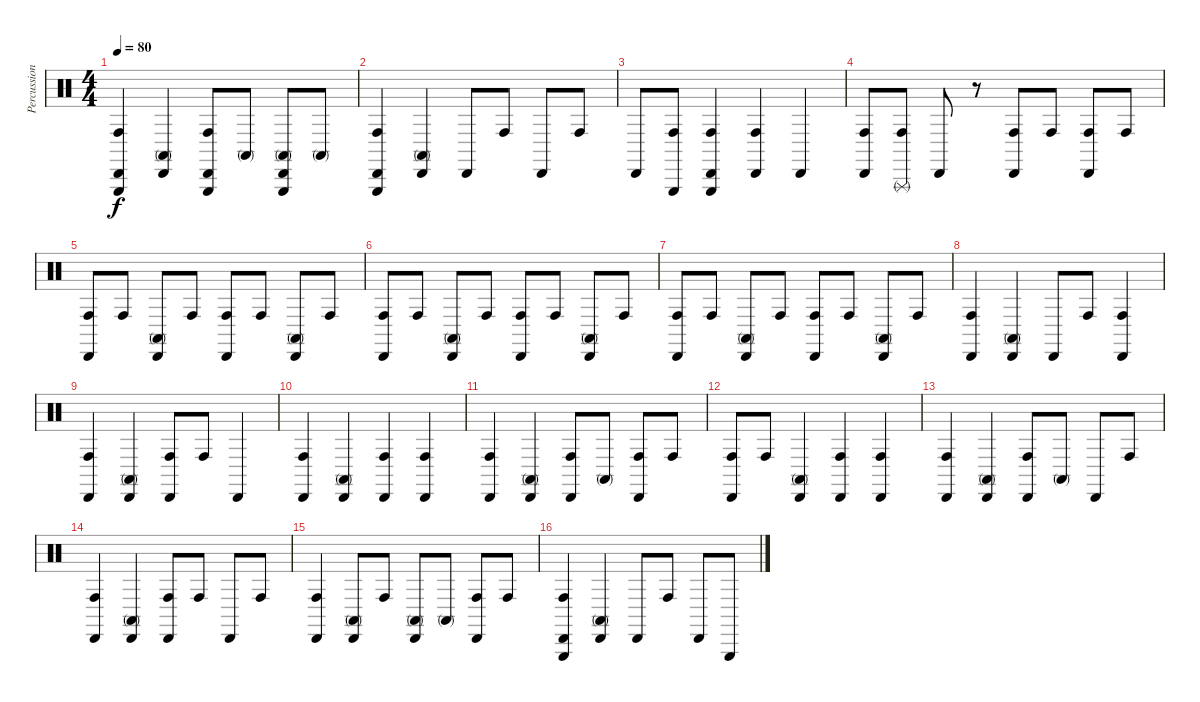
\track ("Percussions" "Percussion") {instrument percussion}
\staff {score}
\articulation defaults
\ts (4 4)
\tempo 80
\clef neutral
\ks c
("Cabasa (hit)" "Triangle (hit)" "Conga high (hit)").4{dy f} ("Cabasa (hit)" "Conga high (mute)").4 ("Cabasa (hit)" "Triangle (hit)" "Conga high (hit)").8 "Conga high (mute)".8 ("Cabasa (hit)" "Triangle (hit)" "Conga high (mute)").8 "Conga high (mute)".8 |
("Cabasa (hit)" "Triangle (hit)" "Conga high (hit)").4 ("Cabasa (hit)" "Conga high (mute)").4 "Cabasa (hit)".8 "Conga high (hit)".8 "Cabasa (hit)".8 "Conga high (hit)".8 |
"Cabasa (hit)".8 ("Triangle (hit)" "Conga high (hit)").8 ("Cabasa (hit)" "Triangle (hit)" "Conga high (hit)").4 ("Cabasa (hit)" "Conga high (hit)").4 "Cabasa (hit)".4 |
("Cabasa (hit)" "Conga high (hit)").8 ("Triangle (rnute)" "Conga high (hit)").8 "Cabasa (hit)".8 r.8 ("Cabasa (hit)" "Conga high (hit)").8 "Conga high (hit)".8 ("Cabasa (hit)" "Conga high (hit)").8 "Conga high (hit)".8 |
("Cabasa (hit)" "Conga high (hit)").8 "Conga high (hit)".8 ("Cabasa (hit)" "Conga high (mute)").8 "Conga high (hit)".8 ("Cabasa (hit)" "Conga high (hit)").8 "Conga high (hit)".8 ("Cabasa (hit)" "Conga high (mute)").8 "Conga high (hit)".8 |
("Cabasa (hit)" "Conga high (hit)").8 "Conga high (hit)".8 ("Cabasa (hit)" "Conga high (mute)").8 "Conga high (hit)".8 ("Cabasa (hit)" "Conga high (hit)").8 "Conga high (hit)".8 ("Cabasa (hit)" "Conga high (mute)").8 "Conga high (hit)".8 |
("Cabasa (hit)" "Conga high (hit)").8 "Conga high (hit)".8 ("Cabasa (hit)" "Conga high (mute)").8 "Conga high (hit)".8 ("Cabasa (hit)" "Conga high (hit)").8 "Conga high (hit)".8 ("Cabasa (hit)" "Conga high (mute)").8 "Conga high (hit)".8 |
("Cabasa (hit)" "Conga high (hit)").4 ("Cabasa (hit)" "Conga high (mute)").4 "Cabasa (hit)".8 "Conga high (hit)".8 ("Cabasa (hit)" "Conga high (hit)").4 |
("Cabasa (hit)" "Conga high (hit)").4 ("Cabasa (hit)" "Conga high (mute)").4 ("Cabasa (hit)" "Conga high (hit)").8 "Conga high (hit)".8 "Cabasa (hit)".4 |
("Cabasa (hit)" "Conga high (hit)").4 ("Cabasa (hit)" "Conga high (mute)").4 ("Cabasa (hit)" "Conga high (hit)").4 ("Cabasa (hit)" "Conga high (hit)").4 |
("Cabasa (hit)" "Conga high (hit)").4 ("Cabasa (hit)" "Conga high (mute)").4 ("Cabasa (hit)" "Conga high (hit)").8 "Conga high (mute)".8 ("Cabasa (hit)" "Conga high (hit)").8 "Conga high (hit)".8 |
("Cabasa (hit)" "Conga high (hit)").8 "Conga high (hit)".8 ("Cabasa (hit)" "Conga high (mute)").4 ("Cabasa (hit)" "Conga high (hit)").4 ("Cabasa (hit)" "Conga high (hit)").4 |
("Cabasa (hit)" "Conga high (hit)").4 ("Cabasa (hit)" "Conga high (mute)").4 ("Cabasa (hit)" "Conga high (hit)").8 "Conga high (mute)".8 "Cabasa (hit)".8 "Conga high (hit)".8 |
("Cabasa (hit)" "Conga high (hit)").4 ("Cabasa (hit)" "Conga high (mute)").4 ("Cabasa (hit)" "Conga high (hit)").8 "Conga high (hit)".8 "Cabasa (hit)".8 "Conga high (hit)".8 |
("Cabasa (hit)" "Conga high (hit)").4 ("Cabasa (hit)" "Conga high (mute)").8 "Conga high (hit)".8 ("Cabasa (hit)" "Conga high (mute)").8 "Conga high (mute)".8 ("Cabasa (hit)" "Conga high (hit)").8 "Conga high (hit)".8 |
("Cabasa (hit)" "Triangle (hit)" "Conga high (hit)").4 ("Cabasa (hit)" "Conga high (mute)").4 "Cabasa (hit)".8 "Conga high (hit)".8 "Cabasa (hit)".8 "Triangle (hit)".8
